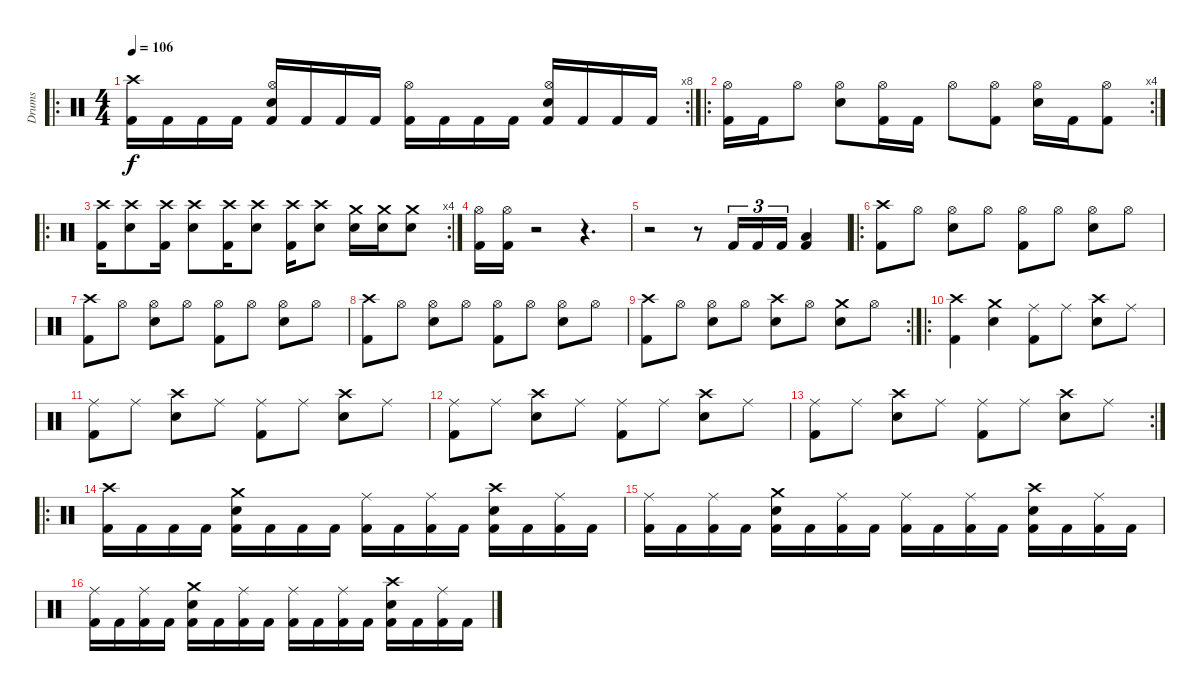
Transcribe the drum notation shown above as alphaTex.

\track ("Drums" "Drums") {instrument percussion}
\staff {score}
\articulation defaults
\ro
\rc 8
\ts (4 4)
\tempo 106
\clef neutral
\ks c
("Crash high (hit)" "Kick (hit) 2").16{dy f} "Kick (hit) 2".16 "Kick (hit) 2".16 "Kick (hit) 2".16 ("Hi-Hat (open)" "Electric Snare (hit)" "Kick (hit) 2").16 "Kick (hit) 2".16 "Kick (hit) 2".16 "Kick (hit) 2".16 ("Hi-Hat (open)" "Kick (hit) 2").16 "Kick (hit) 2".16 "Kick (hit) 2".16 "Kick (hit) 2".16 ("Hi-Hat (open)" "Electric Snare (hit)" "Kick (hit) 2").16 "Kick (hit) 2".16 "Kick (hit) 2".16 "Kick (hit) 2".16 |
\ro
\rc 4
("Hi-Hat (open)" "Kick (hit) 2").16 "Kick (hit) 2".16 "Hi-Hat (open)".8 ("Hi-Hat (open)" "Electric Snare (hit)").8 ("Hi-Hat (open)" "Kick (hit) 2").16 "Kick (hit) 2".16 "Hi-Hat (open)".8 ("Hi-Hat (open)" "Kick (hit) 2").8 ("Hi-Hat (open)" "Electric Snare (hit)").16 "Kick (hit) 2".16 ("Hi-Hat (open)" "Kick (hit) 2").8 |
\ro
\rc 4
("Crash high (hit)" "Kick (hit) 2").16 ("Crash high (hit)" "Electric Snare (hit)").8 ("Crash high (hit)" "Kick (hit) 2").16 ("Crash high (hit)" "Electric Snare (hit)").8 ("Crash high (hit)" "Kick (hit) 2").16 ("Crash high (hit)" "Electric Snare (hit)").8 ("Crash high (hit)" "Kick (hit) 2").16 ("Crash high (hit)" "Electric Snare (hit)").8 ("Crash medium (hit)" "Electric Snare (hit)").16 ("Crash medium (hit)" "Electric Snare (hit)").16 ("Crash medium (hit)" "Electric Snare (hit)").8 |
("Hi-Hat (open)" "Kick (hit) 2").16 ("Hi-Hat (open)" "Kick (hit) 2").16 r.2 r.4{d} |
r.2 r.8 "Kick (hit) 2".16{tu (3 2)} "Kick (hit) 2".16{tu (3 2)} "Kick (hit) 2".16{tu (3 2)} ("Low Tom (hit)" "Kick (hit) 2").4 |
\ro
("Crash high (hit)" "Kick (hit) 2").8 "Hi-Hat (open)".8 ("Hi-Hat (open)" "Electric Snare (hit)").8 "Hi-Hat (open)".8 ("Hi-Hat (open)" "Kick (hit) 2").8 "Hi-Hat (open)".8 ("Hi-Hat (open)" "Electric Snare (hit)").8 "Hi-Hat (open)".8 |
("Crash high (hit)" "Kick (hit) 2").8 "Hi-Hat (open)".8 ("Hi-Hat (open)" "Electric Snare (hit)").8 "Hi-Hat (open)".8 ("Hi-Hat (open)" "Kick (hit) 2").8 "Hi-Hat (open)".8 ("Hi-Hat (open)" "Electric Snare (hit)").8 "Hi-Hat (open)".8 |
("Crash high (hit)" "Kick (hit) 2").8 "Hi-Hat (open)".8 ("Hi-Hat (open)" "Electric Snare (hit)").8 "Hi-Hat (open)".8 ("Hi-Hat (open)" "Kick (hit) 2").8 "Hi-Hat (open)".8 ("Hi-Hat (open)" "Electric Snare (hit)").8 "Hi-Hat (open)".8 |
\rc 2
("Crash high (hit)" "Kick (hit) 2").8 "Hi-Hat (open)".8 ("Hi-Hat (open)" "Electric Snare (hit)").8 "Hi-Hat (open)".8 ("Crash high (hit)" "Electric Snare (hit)").8 "Hi-Hat (open)".8 ("Crash medium (hit)" "Electric Snare (hit)").8 "Hi-Hat (open)".8 |
\ro
("Crash high (hit)" "Kick (hit) 2").4 ("Crash medium (hit)" "Electric Snare (hit)").4 ("Ride (middle)" "Kick (hit) 2").8 "Ride (middle)".8 ("Crash high (hit)" "Electric Snare (hit)").8 "Ride (middle)".8 |
("Ride (middle)" "Kick (hit) 2").8 "Ride (middle)".8 ("Crash high (hit)" "Electric Snare (hit)").8 "Ride (middle)".8 ("Ride (middle)" "Kick (hit) 2").8 "Ride (middle)".8 ("Crash high (hit)" "Electric Snare (hit)").8 "Ride (middle)".8 |
("Ride (middle)" "Kick (hit) 2").8 "Ride (middle)".8 ("Crash high (hit)" "Electric Snare (hit)").8 "Ride (middle)".8 ("Ride (middle)" "Kick (hit) 2").8 "Ride (middle)".8 ("Crash high (hit)" "Electric Snare (hit)").8 "Ride (middle)".8 |
\rc 2
("Ride (middle)" "Kick (hit) 2").8 "Ride (middle)".8 ("Crash high (hit)" "Electric Snare (hit)").8 "Ride (middle)".8 ("Ride (middle)" "Kick (hit) 2").8 "Ride (middle)".8 ("Crash high (hit)" "Electric Snare (hit)").8 "Ride (middle)".8 |
\ro
("Crash high (hit)" "Kick (hit) 2").16 "Kick (hit) 2".16 "Kick (hit) 2".16 "Kick (hit) 2".16 ("Crash medium (hit)" "Electric Snare (hit)" "Kick (hit) 2").16 "Kick (hit) 2".16 "Kick (hit) 2".16 "Kick (hit) 2".16 ("Ride (middle)" "Kick (hit) 2").16 "Kick (hit) 2".16 ("Ride (middle)" "Kick (hit) 2").16 "Kick (hit) 2".16 ("Crash high (hit)" "Electric Snare (hit)" "Kick (hit) 2").16 "Kick (hit) 2".16 ("Ride (middle)" "Kick (hit) 2").16 "Kick (hit) 2".16 |
("Ride (middle)" "Kick (hit) 2").16 "Kick (hit) 2".16 ("Ride (middle)" "Kick (hit) 2").16 "Kick (hit) 2".16 ("Crash medium (hit)" "Electric Snare (hit)" "Kick (hit) 2").16 "Kick (hit) 2".16 ("Ride (middle)" "Kick (hit) 2").16 "Kick (hit) 2".16 ("Ride (middle)" "Kick (hit) 2").16 "Kick (hit) 2".16 ("Ride (middle)" "Kick (hit) 2").16 "Kick (hit) 2".16 ("Crash high (hit)" "Electric Snare (hit)" "Kick (hit) 2").16 "Kick (hit) 2".16 ("Ride (middle)" "Kick (hit) 2").16 "Kick (hit) 2".16 |
("Ride (middle)" "Kick (hit) 2").16 "Kick (hit) 2".16 ("Ride (middle)" "Kick (hit) 2").16 "Kick (hit) 2".16 ("Crash medium (hit)" "Electric Snare (hit)" "Kick (hit) 2").16 "Kick (hit) 2".16 ("Ride (middle)" "Kick (hit) 2").16 "Kick (hit) 2".16 ("Ride (middle)" "Kick (hit) 2").16 "Kick (hit) 2".16 ("Ride (middle)" "Kick (hit) 2").16 "Kick (hit) 2".16 ("Crash high (hit)" "Electric Snare (hit)" "Kick (hit) 2").16 "Kick (hit) 2".16 ("Ride (middle)" "Kick (hit) 2").16 "Kick (hit) 2".16
